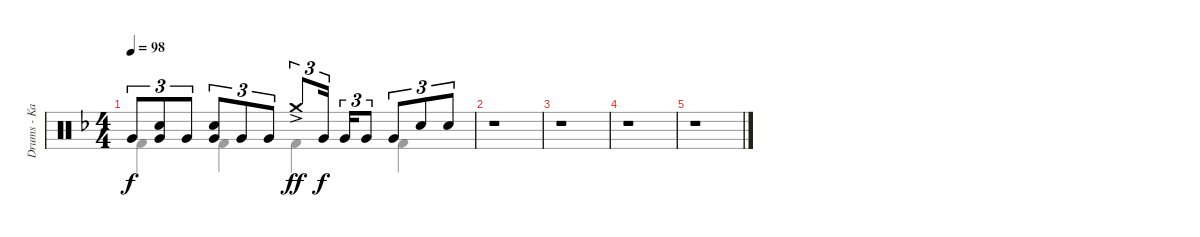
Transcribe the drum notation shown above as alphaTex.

\track ("Drums - Kai" "Drums - Ka") {instrument percussion}
\staff {score}
\articulation defaults
\voice
\ts (4 4)
\tempo 98
\clef neutral
\ks f "Very Low Tom (hit)".8{tu (3 2) dy f}
("Very Low Tom (hit)" "Snare (hit) 2").8{tu (3 2)} "Very Low Tom (hit)".8{tu (3 2)} ("Very Low Tom (hit)" "Snare (hit) 2").8{tu (3 2)} "Very Low Tom (hit)".8{tu (3 2)} "Very Low Tom (hit)".8{tu (3 2)} "Crash medium (hit)"{ac}.8{tu (3 2) dy ff} "Very Low Tom (hit)".16{tu (3 2) dy f beam splitsecondary} "Very Low Tom (hit)".16{tu (3 2)} "Very Low Tom (hit)".8{tu (3 2)} "Very Low Tom (hit)".8{tu (3 2)} "Snare (hit) 2".8{tu (3 2)} "Snare (hit) 2".8{tu (3 2)} |
r.1 |
r.1 |
r.1 |
r.1
\voice
\clef neutral
\ottava regular
\simile none
\ks f "Kick (hit) 2".4{dy f} "Kick (hit) 2".4 "Kick (hit) 2".4 "Kick (hit) 2".4
|
|
|
|
